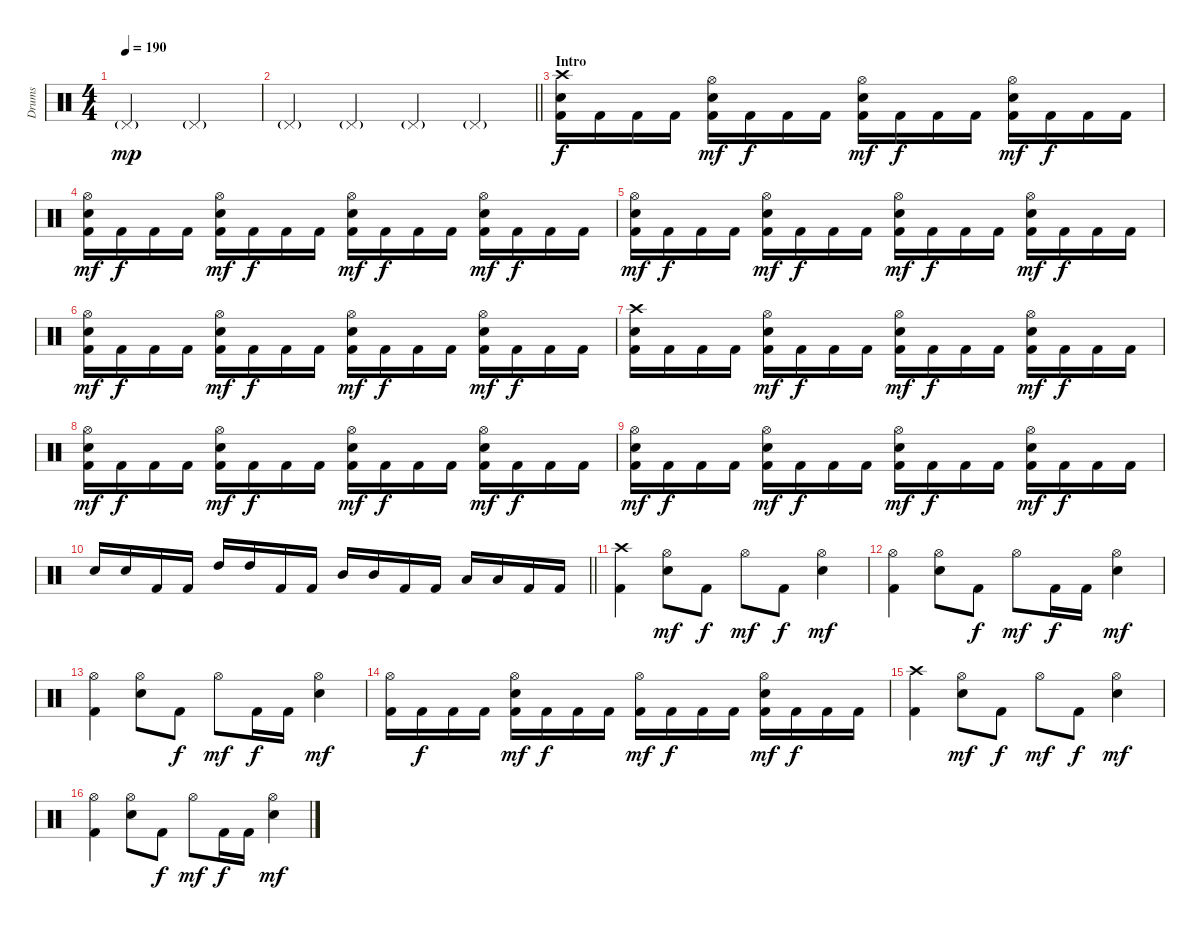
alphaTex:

\track ("Drums" "Drums") {instrument percussion}
\staff {score}
\articulation defaults
\ts (4 4)
\tempo 190
\clef neutral
\ks c "Pedal Hi-Hat (hit)"{g}.2{dy mp} "Pedal Hi-Hat (hit)"{g}.2
|
\barLineRight lightlight "Pedal Hi-Hat (hit)"{g}.4 "Pedal Hi-Hat (hit)"{g}.4 "Pedal Hi-Hat (hit)"{g}.4 "Pedal Hi-Hat (hit)"{g}.4
|
\section ("" "Intro")
("Crash high (hit)" "Electric Snare (hit)" "Kick (hit) 2").16{dy f} "Kick (hit) 2".16 "Kick (hit) 2".16 "Kick (hit) 2".16 ("Hi-Hat (open)" "Electric Snare (hit)" "Kick (hit) 2").16{dy mf} "Kick (hit) 2".16{dy f} "Kick (hit) 2".16 "Kick (hit) 2".16 ("Hi-Hat (open)" "Electric Snare (hit)" "Kick (hit) 2").16{dy mf} "Kick (hit) 2".16{dy f} "Kick (hit) 2".16 "Kick (hit) 2".16 ("Hi-Hat (open)" "Electric Snare (hit)" "Kick (hit) 2").16{dy mf} "Kick (hit) 2".16{dy f} "Kick (hit) 2".16 "Kick (hit) 2".16 |
("Hi-Hat (open)" "Electric Snare (hit)" "Kick (hit) 2").16{dy mf} "Kick (hit) 2".16{dy f} "Kick (hit) 2".16 "Kick (hit) 2".16 ("Hi-Hat (open)" "Electric Snare (hit)" "Kick (hit) 2").16{dy mf} "Kick (hit) 2".16{dy f} "Kick (hit) 2".16 "Kick (hit) 2".16 ("Hi-Hat (open)" "Electric Snare (hit)" "Kick (hit) 2").16{dy mf} "Kick (hit) 2".16{dy f} "Kick (hit) 2".16 "Kick (hit) 2".16 ("Hi-Hat (open)" "Electric Snare (hit)" "Kick (hit) 2").16{dy mf} "Kick (hit) 2".16{dy f} "Kick (hit) 2".16 "Kick (hit) 2".16 |
("Hi-Hat (open)" "Electric Snare (hit)" "Kick (hit) 2").16{dy mf} "Kick (hit) 2".16{dy f} "Kick (hit) 2".16 "Kick (hit) 2".16 ("Hi-Hat (open)" "Electric Snare (hit)" "Kick (hit) 2").16{dy mf} "Kick (hit) 2".16{dy f} "Kick (hit) 2".16 "Kick (hit) 2".16 ("Hi-Hat (open)" "Electric Snare (hit)" "Kick (hit) 2").16{dy mf} "Kick (hit) 2".16{dy f} "Kick (hit) 2".16 "Kick (hit) 2".16 ("Hi-Hat (open)" "Electric Snare (hit)" "Kick (hit) 2").16{dy mf} "Kick (hit) 2".16{dy f} "Kick (hit) 2".16 "Kick (hit) 2".16 |
("Hi-Hat (open)" "Electric Snare (hit)" "Kick (hit) 2").16{dy mf} "Kick (hit) 2".16{dy f} "Kick (hit) 2".16 "Kick (hit) 2".16 ("Hi-Hat (open)" "Electric Snare (hit)" "Kick (hit) 2").16{dy mf} "Kick (hit) 2".16{dy f} "Kick (hit) 2".16 "Kick (hit) 2".16 ("Hi-Hat (open)" "Electric Snare (hit)" "Kick (hit) 2").16{dy mf} "Kick (hit) 2".16{dy f} "Kick (hit) 2".16 "Kick (hit) 2".16 ("Hi-Hat (open)" "Electric Snare (hit)" "Kick (hit) 2").16{dy mf} "Kick (hit) 2".16{dy f} "Kick (hit) 2".16 "Kick (hit) 2".16 |
("Crash high (hit)" "Electric Snare (hit)" "Kick (hit) 2").16 "Kick (hit) 2".16 "Kick (hit) 2".16 "Kick (hit) 2".16 ("Hi-Hat (open)" "Electric Snare (hit)" "Kick (hit) 2").16{dy mf} "Kick (hit) 2".16{dy f} "Kick (hit) 2".16 "Kick (hit) 2".16 ("Hi-Hat (open)" "Electric Snare (hit)" "Kick (hit) 2").16{dy mf} "Kick (hit) 2".16{dy f} "Kick (hit) 2".16 "Kick (hit) 2".16 ("Hi-Hat (open)" "Electric Snare (hit)" "Kick (hit) 2").16{dy mf} "Kick (hit) 2".16{dy f} "Kick (hit) 2".16 "Kick (hit) 2".16 |
("Hi-Hat (open)" "Electric Snare (hit)" "Kick (hit) 2").16{dy mf} "Kick (hit) 2".16{dy f} "Kick (hit) 2".16 "Kick (hit) 2".16 ("Hi-Hat (open)" "Electric Snare (hit)" "Kick (hit) 2").16{dy mf} "Kick (hit) 2".16{dy f} "Kick (hit) 2".16 "Kick (hit) 2".16 ("Hi-Hat (open)" "Electric Snare (hit)" "Kick (hit) 2").16{dy mf} "Kick (hit) 2".16{dy f} "Kick (hit) 2".16 "Kick (hit) 2".16 ("Hi-Hat (open)" "Electric Snare (hit)" "Kick (hit) 2").16{dy mf} "Kick (hit) 2".16{dy f} "Kick (hit) 2".16 "Kick (hit) 2".16 |
("Hi-Hat (open)" "Electric Snare (hit)" "Kick (hit) 2").16{dy mf} "Kick (hit) 2".16{dy f} "Kick (hit) 2".16 "Kick (hit) 2".16 ("Hi-Hat (open)" "Electric Snare (hit)" "Kick (hit) 2").16{dy mf} "Kick (hit) 2".16{dy f} "Kick (hit) 2".16 "Kick (hit) 2".16 ("Hi-Hat (open)" "Electric Snare (hit)" "Kick (hit) 2").16{dy mf} "Kick (hit) 2".16{dy f} "Kick (hit) 2".16 "Kick (hit) 2".16 ("Hi-Hat (open)" "Electric Snare (hit)" "Kick (hit) 2").16{dy mf} "Kick (hit) 2".16{dy f} "Kick (hit) 2".16 "Kick (hit) 2".16 |
\barLineRight lightlight "Electric Snare (hit)".16 "Electric Snare (hit)".16 "Kick (hit) 2".16 "Kick (hit) 2".16 "High Tom (hit)".16 "High Tom (hit)".16 "Kick (hit) 2".16 "Kick (hit) 2".16 "Mid Tom (hit)".16 "Mid Tom (hit)".16 "Kick (hit) 2".16 "Kick (hit) 2".16 "Low Tom (hit)".16 "Low Tom (hit)".16 "Kick (hit) 2".16 "Kick (hit) 2".16
|
("Crash high (hit)" "Kick (hit) 2").4 ("Hi-Hat (open)" "Electric Snare (hit)").8{dy mf} "Kick (hit) 2".8{dy f} "Hi-Hat (open)".8{dy mf} "Kick (hit) 2".8{dy f} ("Hi-Hat (open)" "Electric Snare (hit)").4{dy mf} |
("Hi-Hat (open)" "Kick (hit) 2").4 ("Hi-Hat (open)" "Electric Snare (hit)").8 "Kick (hit) 2".8{dy f} "Hi-Hat (open)".8{dy mf} "Kick (hit) 2".16{dy f} "Kick (hit) 2".16 ("Hi-Hat (open)" "Electric Snare (hit)").4{dy mf} |
("Hi-Hat (open)" "Kick (hit) 2").4 ("Hi-Hat (open)" "Electric Snare (hit)").8 "Kick (hit) 2".8{dy f} "Hi-Hat (open)".8{dy mf} "Kick (hit) 2".16{dy f} "Kick (hit) 2".16 ("Hi-Hat (open)" "Electric Snare (hit)").4{dy mf} |
("Hi-Hat (open)" "Kick (hit) 2").16 "Kick (hit) 2".16{dy f} "Kick (hit) 2".16 "Kick (hit) 2".16 ("Hi-Hat (open)" "Electric Snare (hit)" "Kick (hit) 2").16{dy mf} "Kick (hit) 2".16{dy f} "Kick (hit) 2".16 "Kick (hit) 2".16 ("Hi-Hat (open)" "Kick (hit) 2").16{dy mf} "Kick (hit) 2".16{dy f} "Kick (hit) 2".16 "Kick (hit) 2".16 ("Hi-Hat (open)" "Electric Snare (hit)" "Kick (hit) 2").16{dy mf} "Kick (hit) 2".16{dy f} "Kick (hit) 2".16 "Kick (hit) 2".16 |
("Crash high (hit)" "Kick (hit) 2").4 ("Hi-Hat (open)" "Electric Snare (hit)").8{dy mf} "Kick (hit) 2".8{dy f} "Hi-Hat (open)".8{dy mf} "Kick (hit) 2".8{dy f} ("Hi-Hat (open)" "Electric Snare (hit)").4{dy mf} |
("Hi-Hat (open)" "Kick (hit) 2").4 ("Hi-Hat (open)" "Electric Snare (hit)").8 "Kick (hit) 2".8{dy f} "Hi-Hat (open)".8{dy mf} "Kick (hit) 2".16{dy f} "Kick (hit) 2".16 ("Hi-Hat (open)" "Electric Snare (hit)").4{dy mf}
